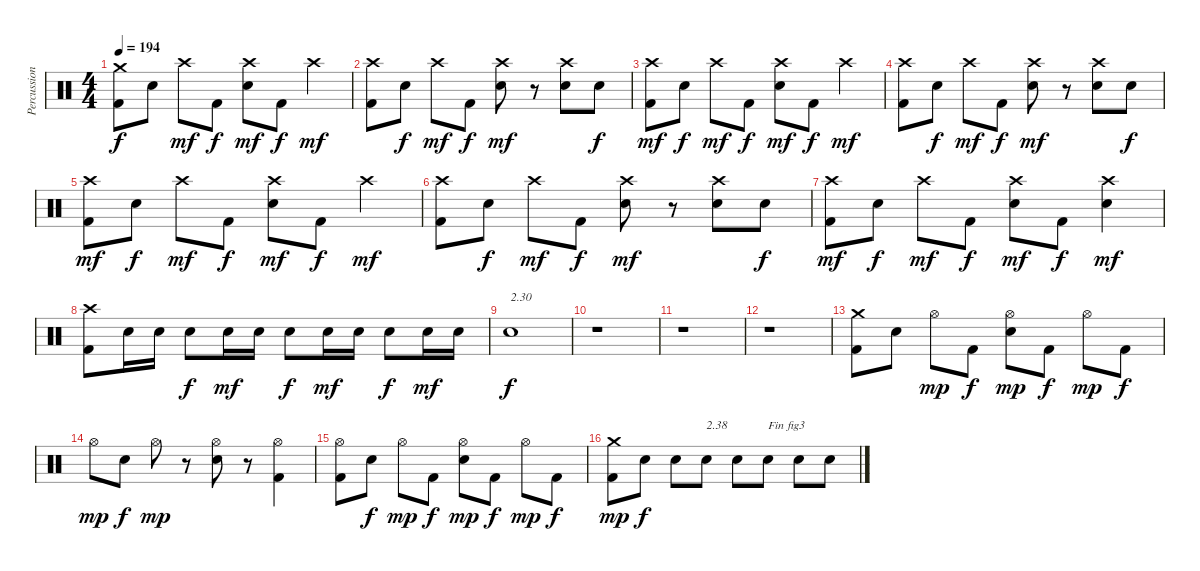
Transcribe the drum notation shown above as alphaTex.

\track ("Percussions" "Percussion") {instrument percussion}
\staff {score}
\articulation defaults
\ts (4 4)
\tempo 194
\clef neutral
\ks c
("Kick (hit) 2" "Crash medium (hit)").8{dy f} "Electric Snare (hit)".8 "Crash high (hit)".8{dy mf} "Kick (hit) 2".8{dy f} ("Electric Snare (hit)" "Crash high (hit)").8{dy mf} "Kick (hit) 2".8{dy f} "Crash high (hit)".4{dy mf} |
("Kick (hit) 2" "Crash high (hit)").8 "Electric Snare (hit)".8{dy f} "Crash high (hit)".8{dy mf} "Kick (hit) 2".8{dy f} ("Electric Snare (hit)" "Crash high (hit)").8{dy mf} r.8 ("Electric Snare (hit)" "Crash high (hit)").8 "Electric Snare (hit)".8{dy f} |
("Kick (hit) 2" "Crash high (hit)").8{dy mf} "Electric Snare (hit)".8{dy f} "Crash high (hit)".8{dy mf} "Kick (hit) 2".8{dy f} ("Electric Snare (hit)" "Crash high (hit)").8{dy mf} "Kick (hit) 2".8{dy f} "Crash high (hit)".4{dy mf} |
("Kick (hit) 2" "Crash high (hit)").8 "Electric Snare (hit)".8{dy f} "Crash high (hit)".8{dy mf} "Kick (hit) 2".8{dy f} ("Electric Snare (hit)" "Crash high (hit)").8{dy mf} r.8 ("Electric Snare (hit)" "Crash high (hit)").8 "Electric Snare (hit)".8{dy f} |
("Kick (hit) 2" "Crash high (hit)").8{dy mf} "Electric Snare (hit)".8{dy f} "Crash high (hit)".8{dy mf} "Kick (hit) 2".8{dy f} ("Electric Snare (hit)" "Crash high (hit)").8{dy mf} "Kick (hit) 2".8{dy f} "Crash high (hit)".4{dy mf} |
("Kick (hit) 2" "Crash high (hit)").8 "Electric Snare (hit)".8{dy f} "Crash high (hit)".8{dy mf} "Kick (hit) 2".8{dy f} ("Electric Snare (hit)" "Crash high (hit)").8{dy mf} r.8 ("Electric Snare (hit)" "Crash high (hit)").8 "Electric Snare (hit)".8{dy f} |
("Kick (hit) 2" "Crash high (hit)").8{dy mf} "Electric Snare (hit)".8{dy f} "Crash high (hit)".8{dy mf} "Kick (hit) 2".8{dy f} ("Electric Snare (hit)" "Crash high (hit)").8{dy mf} "Kick (hit) 2".8{dy f} ("Electric Snare (hit)" "Crash high (hit)").4{dy mf} |
("Kick (hit) 2" "Crash high (hit)").8 "Electric Snare (hit)".16 "Electric Snare (hit)".16 "Electric Snare (hit)".8{dy f} "Electric Snare (hit)".16{dy mf} "Electric Snare (hit)".16 "Electric Snare (hit)".8{dy f} "Electric Snare (hit)".16{dy mf} "Electric Snare (hit)".16 "Electric Snare (hit)".8{dy f} "Electric Snare (hit)".16{dy mf} "Electric Snare (hit)".16 |
"Electric Snare (hit)".1{txt "2.30" dy f} |
r.1 |
r.1 |
r.1 |
("Kick (hit) 2" "Crash medium (hit)").8 "Electric Snare (hit)".8 "Hi-Hat (open)".8{dy mp} "Kick (hit) 2".8{dy f} ("Electric Snare (hit)" "Hi-Hat (open)").8{dy mp} "Kick (hit) 2".8{dy f} "Hi-Hat (open)".8{dy mp} "Kick (hit) 2".8{dy f} |
"Hi-Hat (open)".8{dy mp} "Electric Snare (hit)".8{dy f} "Hi-Hat (open)".8{dy mp} r.8 ("Electric Snare (hit)" "Hi-Hat (open)").8 r.8 ("Kick (hit) 2" "Hi-Hat (open)").4 |
("Kick (hit) 2" "Hi-Hat (open)").8 "Electric Snare (hit)".8{dy f} "Hi-Hat (open)".8{dy mp} "Kick (hit) 2".8{dy f} ("Electric Snare (hit)" "Hi-Hat (open)").8{dy mp} "Kick (hit) 2".8{dy f} "Hi-Hat (open)".8{dy mp} "Kick (hit) 2".8{dy f} |
("Kick (hit) 2" "Crash medium (hit)").8{dy mp} "Electric Snare (hit)".8{dy f} "Electric Snare (hit)".8 "Electric Snare (hit)".8{txt "2.38"} "Electric Snare (hit)".8 "Electric Snare (hit)".8{txt "Fin fig3"} "Electric Snare (hit)".8 "Electric Snare (hit)".8
